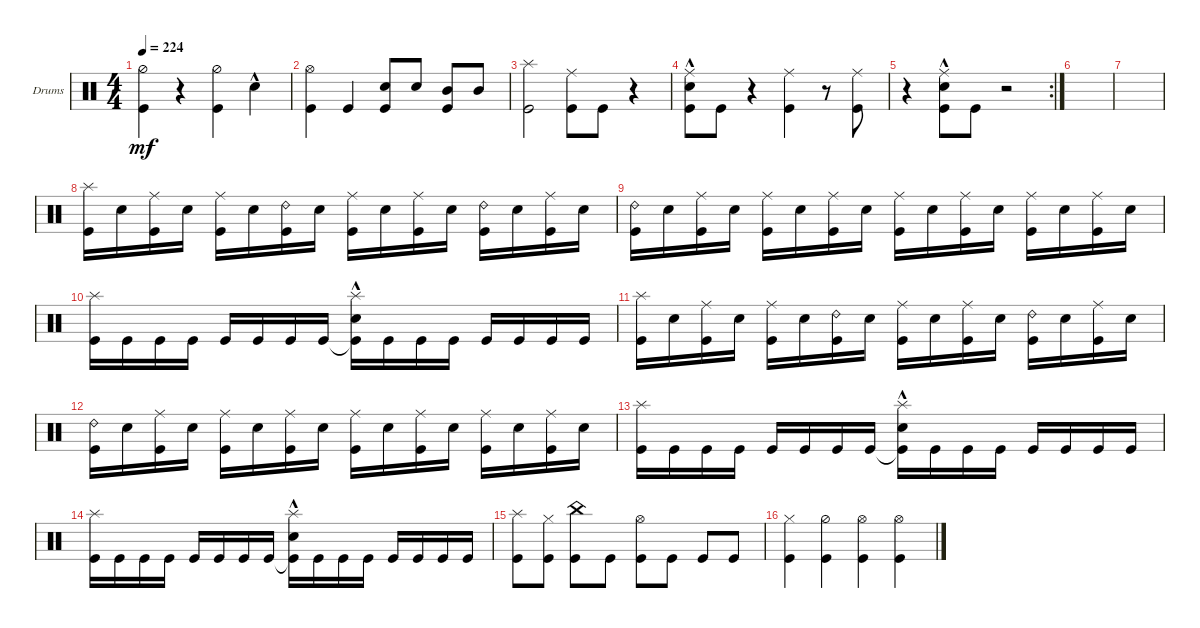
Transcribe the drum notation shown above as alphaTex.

\defaultSystemsLayout 4
\bracketExtendMode groupsimilarinstruments
\firstSystemTrackNameOrientation horizontal
\otherSystemsTrackNameOrientation horizontal
\track ("Drumkit" "Drums") {instrument percussion}
\staff {score}
\articulation defaults
\ts (4 4)
\tempo 224
\clef neutral
\scale
0.311111
\ks c
("Kick (hit)" "Hi-Hat (half)").4{dy mf} r.4 ("Kick (hit)" "Hi-Hat (half)").4 "Snare (hit) 2"{hac}.4 |
\scale
0.311111 ("Kick (hit)" "Hi-Hat (open)").4 "Kick (hit)".4 ("Snare (hit) 2" "Kick (hit)").8 "Snare (hit) 2".8 ("Mid Tom (hit)" "Kick (hit)").8 "Mid Tom (hit)".8 |
\scale
0.321839 ("Kick (hit)" "Splash (hit)").2 ("Kick (hit)" "Ride (middle)").8 "Kick (hit)".8 r.4 |
\scale
0.321839 ("Kick (hit)" "Ride (middle)" "Snare (hit) 2"{hac}).8 "Kick (hit)".8 r.4 ("Kick (hit)" "Ride (middle)").4 r.8 ("Kick (hit)" "Ride (middle)").8 |
\rc 2
\scale
0.356322 r.4 ("Kick (hit)" "Ride (middle)" "Snare (hit) 2"{hac}).8 "Kick (hit)".8 r.2 |
\scale
0.333333 |
\scale
0.333333 |
\scale
0.333333 ("Splash (hit)" "Kick (hit)").16 "Snare (hit) 2".16 ("Kick (hit)" "Ride (middle)").16 "Snare (hit) 2".16 ("Kick (hit)" "Ride (middle)").16 "Snare (hit) 2".16 ("Kick (hit)" "Ride (bell) 2").16 "Snare (hit) 2".16 ("Kick (hit)" "Ride (middle)").16 "Snare (hit) 2".16 ("Kick (hit)" "Ride (middle)").16 "Snare (hit) 2".16 ("Kick (hit)" "Ride (bell) 2").16 "Snare (hit) 2".16 ("Kick (hit)" "Ride (middle)").16 "Snare (hit) 2".16 |
\scale
0.333333 ("Kick (hit)" "Ride (bell) 2").16 "Snare (hit) 2".16 ("Kick (hit)" "Ride (middle)").16 "Snare (hit) 2".16 ("Kick (hit)" "Ride (middle)").16 "Snare (hit) 2".16 ("Kick (hit)" "Ride (middle)").16 "Snare (hit) 2".16 ("Kick (hit)" "Ride (middle)").16 "Snare (hit) 2".16 ("Kick (hit)" "Ride (middle)").16 "Snare (hit) 2".16 ("Kick (hit)" "Ride (middle)").16 "Snare (hit) 2".16 ("Kick (hit)" "Ride (middle)").16 "Snare (hit) 2".16 |
\scale
0.333333 ("Kick (hit)" "Splash (hit)").16 "Kick (hit)".16 "Kick (hit)".16 "Kick (hit)".16 "Kick (hit)".16 "Kick (hit)".16 "Kick (hit)".16 "Kick (hit)".16 ("Kick (hit)"{t} "Splash (hit)" "Snare (hit) 2"{hac}).16 "Kick (hit)".16 "Kick (hit)".16 "Kick (hit)".16 "Kick (hit)".16 "Kick (hit)".16 "Kick (hit)".16 "Kick (hit)".16 |
\scale
0.333333 ("Splash (hit)" "Kick (hit)").16 "Snare (hit) 2".16 ("Kick (hit)" "Ride (middle)").16 "Snare (hit) 2".16 ("Kick (hit)" "Ride (middle)").16 "Snare (hit) 2".16 ("Kick (hit)" "Ride (bell) 2").16 "Snare (hit) 2".16 ("Kick (hit)" "Ride (middle)").16 "Snare (hit) 2".16 ("Kick (hit)" "Ride (middle)").16 "Snare (hit) 2".16 ("Kick (hit)" "Ride (bell) 2").16 "Snare (hit) 2".16 ("Kick (hit)" "Ride (middle)").16 "Snare (hit) 2".16 |
\scale
0.333333 ("Kick (hit)" "Ride (bell) 2").16 "Snare (hit) 2".16 ("Kick (hit)" "Ride (middle)").16 "Snare (hit) 2".16 ("Kick (hit)" "Ride (middle)").16 "Snare (hit) 2".16 ("Kick (hit)" "Ride (middle)").16 "Snare (hit) 2".16 ("Kick (hit)" "Ride (middle)").16 "Snare (hit) 2".16 ("Kick (hit)" "Ride (middle)").16 "Snare (hit) 2".16 ("Kick (hit)" "Ride (middle)").16 "Snare (hit) 2".16 ("Kick (hit)" "Ride (middle)").16 "Snare (hit) 2".16 |
\scale
0.333333 ("Kick (hit)" "Splash (hit)").16 "Kick (hit)".16 "Kick (hit)".16 "Kick (hit)".16 "Kick (hit)".16 "Kick (hit)".16 "Kick (hit)".16 "Kick (hit)".16 ("Kick (hit)"{t} "Splash (hit)" "Snare (hit) 2"{hac}).16 "Kick (hit)".16 "Kick (hit)".16 "Kick (hit)".16 "Kick (hit)".16 "Kick (hit)".16 "Kick (hit)".16 "Kick (hit)".16 |
\scale
0.333333 ("Kick (hit)" "Splash (hit)").16 "Kick (hit)".16 "Kick (hit)".16 "Kick (hit)".16 "Kick (hit)".16 "Kick (hit)".16 "Kick (hit)".16 "Kick (hit)".16 ("Kick (hit)"{t} "Splash (hit)" "Snare (hit) 2"{hac}).16 "Kick (hit)".16 "Kick (hit)".16 "Kick (hit)".16 "Kick (hit)".16 "Kick (hit)".16 "Kick (hit)".16 "Kick (hit)".16 |
\scale
0.333333 ("Kick (hit)" "Splash (hit)").8 ("Kick (hit)" "Hi-Hat (closed)").8 ("Kick (hit)" "China (hit)").8 "Kick (hit)".8 ("Kick (hit)" "Hi-Hat (open)").8 "Kick (hit)".8 "Kick (hit)".8 "Kick (hit)".8 |
\scale
0.333333 ("Hi-Hat (closed)" "Kick (hit)").4 ("Hi-Hat (half)" "Kick (hit)").4 ("Hi-Hat (open)" "Kick (hit)").4 ("Hi-Hat (open)" "Kick (hit)").4
